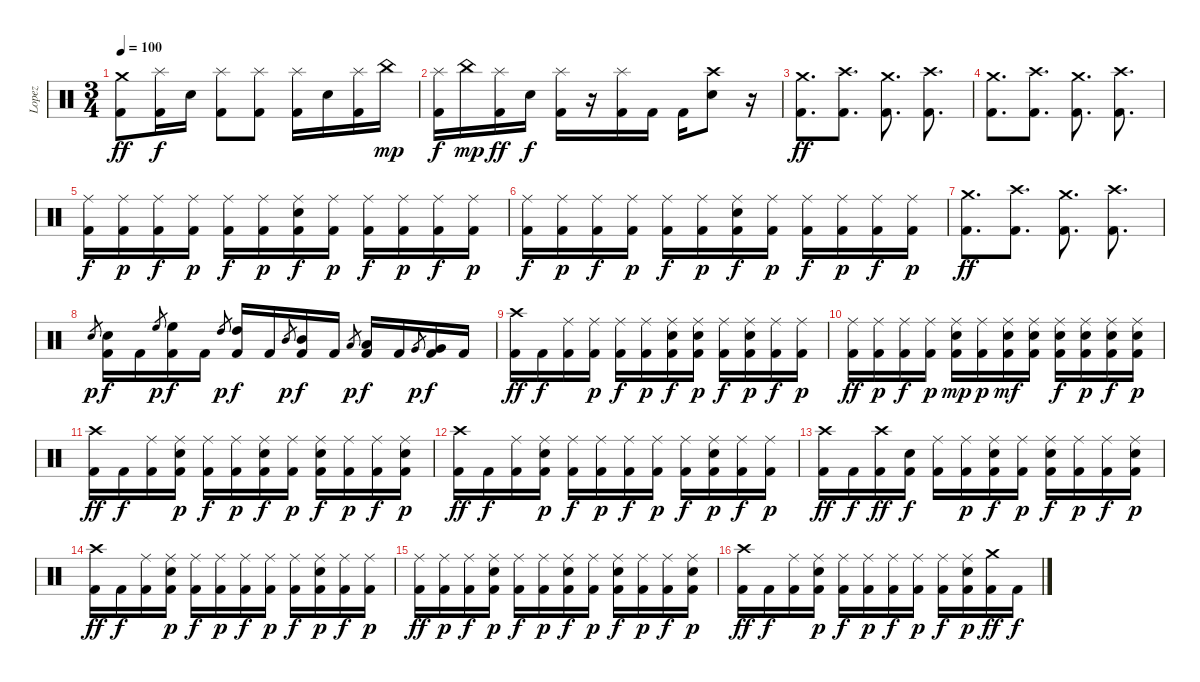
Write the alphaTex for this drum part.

\track ("Lopez" "Lopez") {instrument percussion}
\staff {score}
\articulation defaults
\ts (3 4)
\tempo 100
\clef neutral
\ks c
("Crash medium (hit)" "Kick (hit) 2").8{dy ff} ("Splash (hit)" "Kick (hit) 2").16{dy f} "Snare (hit) 2".16 ("Splash (hit)" "Kick (hit) 2").8 ("Splash (hit)" "Kick (hit) 2").8 ("Splash (hit)" "Kick (hit) 2").16 "Snare (hit) 2".16 ("Splash (hit)" "Kick (hit) 2").16 "China (hit)".16{dy mp} |
("Splash (hit)" "Kick (hit) 2").16{dy f} "China (hit)".16{dy mp} ("Splash (hit)" "Kick (hit) 2").16{dy ff} "Snare (hit) 2".16{dy f} ("Splash (hit)" "Kick (hit) 2").16 r.16 ("Splash (hit)" "Kick (hit) 2").16 "Kick (hit) 2".16 "Kick (hit) 2".16 ("Crash high (hit)" "Snare (hit) 2").8 r.16 |
("Crash medium (hit)" "Kick (hit) 2").8{d dy ff} ("Crash high (hit)" "Kick (hit) 2").8{d} ("Crash medium (hit)" "Kick (hit) 2").8{d} ("Crash high (hit)" "Kick (hit) 2").8{d} |
("Crash medium (hit)" "Kick (hit) 2").8{d} ("Crash high (hit)" "Kick (hit) 2").8{d} ("Crash medium (hit)" "Kick (hit) 2").8{d} ("Crash high (hit)" "Kick (hit) 2").8{d} |
("Ride (middle)" "Kick (hit) 2").16{dy f} ("Ride (middle)" "Kick (hit) 2").16{dy p} ("Ride (middle)" "Kick (hit) 2").16{dy f} ("Ride (middle)" "Kick (hit) 2").16{dy p} ("Ride (middle)" "Kick (hit) 2").16{dy f} ("Ride (middle)" "Kick (hit) 2").16{dy p} ("Ride (middle)" "Snare (hit) 2" "Kick (hit) 2").16{dy f} ("Ride (middle)" "Kick (hit) 2").16{dy p} ("Ride (middle)" "Kick (hit) 2").16{dy f} ("Ride (middle)" "Kick (hit) 2").16{dy p} ("Ride (middle)" "Kick (hit) 2").16{dy f} ("Ride (middle)" "Kick (hit) 2").16{dy p} |
("Ride (middle)" "Kick (hit) 2").16{dy f} ("Ride (middle)" "Kick (hit) 2").16{dy p} ("Ride (middle)" "Kick (hit) 2").16{dy f} ("Ride (middle)" "Kick (hit) 2").16{dy p} ("Ride (middle)" "Kick (hit) 2").16{dy f} ("Ride (middle)" "Kick (hit) 2").16{dy p} ("Ride (middle)" "Snare (hit) 2" "Kick (hit) 2").16{dy f} ("Ride (middle)" "Kick (hit) 2").16{dy p} ("Ride (middle)" "Kick (hit) 2").16{dy f} ("Ride (middle)" "Kick (hit) 2").16{dy p} ("Ride (middle)" "Kick (hit) 2").16{dy f} ("Ride (middle)" "Kick (hit) 2").16{dy p} |
("Crash medium (hit)" "Kick (hit) 2").8{d dy ff} ("Crash high (hit)" "Kick (hit) 2").8{d} ("Crash medium (hit)" "Kick (hit) 2").8{d} ("Crash high (hit)" "Kick (hit) 2").8{d} |
"Snare (hit) 2".8{gr dy p} ("Snare (hit) 2" "Kick (hit) 2").16{dy f} "Kick (hit) 2".16 "High Floor Tom (hit)".8{gr dy p} ("High Floor Tom (hit)" "Kick (hit) 2").16{dy f} "Kick (hit) 2".16 "High Tom (hit)".8{gr dy p} ("High Tom (hit)" "Kick (hit) 2").16{dy f} "Kick (hit) 2".16 "Mid Tom (hit)".8{gr dy p} ("Mid Tom (hit)" "Kick (hit) 2").16{dy f} "Kick (hit) 2".16 "Low Tom (hit)".8{gr dy p} ("Low Tom (hit)" "Kick (hit) 2").16{dy f} "Kick (hit) 2".16 "Very Low Tom (hit)".8{gr dy p} ("Very Low Tom (hit)" "Kick (hit) 2").16{dy f} "Kick (hit) 2".16 |
("Crash high (hit)" "Kick (hit) 2").16{dy ff} "Kick (hit) 2".16{dy f} ("Ride (middle)" "Kick (hit) 2").16 ("Ride (middle)" "Kick (hit) 2").16{dy p} ("Ride (middle)" "Kick (hit) 2").16{dy f} ("Ride (middle)" "Kick (hit) 2").16{dy p} ("Ride (middle)" "Snare (hit) 2" "Kick (hit) 2").16{dy f} ("Ride (middle)" "Snare (hit) 2" "Kick (hit) 2").16{dy p} ("Ride (middle)" "Kick (hit) 2").16{dy f} ("Ride (middle)" "Snare (hit) 2" "Kick (hit) 2").16{dy p} ("Ride (middle)" "Kick (hit) 2").16{dy f} ("Ride (middle)" "Kick (hit) 2").16{dy p} |
("Ride (middle)" "Kick (hit) 2").16{dy ff} ("Ride (middle)" "Kick (hit) 2").16{dy p} ("Ride (middle)" "Kick (hit) 2").16{dy f} ("Ride (middle)" "Kick (hit) 2").16{dy p} ("Ride (middle)" "Snare (hit) 2" "Kick (hit) 2").16{dy mp} ("Ride (middle)" "Kick (hit) 2").16{dy p} ("Ride (middle)" "Snare (hit) 2" "Kick (hit) 2").16{dy mf} ("Ride (middle)" "Snare (hit) 2" "Kick (hit) 2").16 ("Ride (middle)" "Snare (hit) 2" "Kick (hit) 2").16{dy f} ("Ride (middle)" "Snare (hit) 2" "Kick (hit) 2").16{dy p} ("Ride (middle)" "Snare (hit) 2" "Kick (hit) 2").16{dy f} ("Ride (middle)" "Snare (hit) 2" "Kick (hit) 2").16{dy p} |
("Crash high (hit)" "Kick (hit) 2").16{dy ff} "Kick (hit) 2".16{dy f} ("Ride (middle)" "Kick (hit) 2").16 ("Ride (middle)" "Snare (hit) 2" "Kick (hit) 2").16{dy p} ("Ride (middle)" "Kick (hit) 2").16{dy f} ("Ride (middle)" "Kick (hit) 2").16{dy p} ("Ride (middle)" "Snare (hit) 2" "Kick (hit) 2").16{dy f} ("Ride (middle)" "Kick (hit) 2").16{dy p} ("Ride (middle)" "Snare (hit) 2" "Kick (hit) 2").16{dy f} ("Ride (middle)" "Kick (hit) 2").16{dy p} ("Ride (middle)" "Kick (hit) 2").16{dy f} ("Ride (middle)" "Snare (hit) 2" "Kick (hit) 2").16{dy p} |
("Crash high (hit)" "Kick (hit) 2").16{dy ff} "Kick (hit) 2".16{dy f} ("Ride (middle)" "Kick (hit) 2").16 ("Ride (middle)" "Snare (hit) 2" "Kick (hit) 2").16{dy p} ("Ride (middle)" "Kick (hit) 2").16{dy f} ("Ride (middle)" "Kick (hit) 2").16{dy p} ("Ride (middle)" "Kick (hit) 2").16{dy f} ("Ride (middle)" "Kick (hit) 2").16{dy p} ("Ride (middle)" "Kick (hit) 2").16{dy f} ("Ride (middle)" "Snare (hit) 2" "Kick (hit) 2").16{dy p} ("Ride (middle)" "Kick (hit) 2").16{dy f} ("Ride (middle)" "Kick (hit) 2").16{dy p} |
("Crash high (hit)" "Kick (hit) 2").16{dy ff} "Kick (hit) 2".16{dy f} ("Crash high (hit)" "Kick (hit) 2").16{dy ff} ("Snare (hit) 2" "Kick (hit) 2").16{dy f} ("Ride (middle)" "Kick (hit) 2").16 ("Ride (middle)" "Kick (hit) 2").16{dy p} ("Ride (middle)" "Snare (hit) 2" "Kick (hit) 2").16{dy f} ("Ride (middle)" "Kick (hit) 2").16{dy p} ("Ride (middle)" "Snare (hit) 2" "Kick (hit) 2").16{dy f} ("Ride (middle)" "Kick (hit) 2").16{dy p} ("Ride (middle)" "Kick (hit) 2").16{dy f} ("Ride (middle)" "Snare (hit) 2" "Kick (hit) 2").16{dy p} |
("Crash high (hit)" "Kick (hit) 2").16{dy ff} "Kick (hit) 2".16{dy f} ("Ride (middle)" "Kick (hit) 2").16 ("Ride (middle)" "Snare (hit) 2" "Kick (hit) 2").16{dy p} ("Ride (middle)" "Kick (hit) 2").16{dy f} ("Ride (middle)" "Kick (hit) 2").16{dy p} ("Ride (middle)" "Kick (hit) 2").16{dy f} ("Ride (middle)" "Kick (hit) 2").16{dy p} ("Ride (middle)" "Kick (hit) 2").16{dy f} ("Ride (middle)" "Snare (hit) 2" "Kick (hit) 2").16{dy p} ("Ride (middle)" "Kick (hit) 2").16{dy f} ("Ride (middle)" "Kick (hit) 2").16{dy p} |
("Ride (middle)" "Kick (hit) 2").16{dy ff} ("Ride (middle)" "Kick (hit) 2").16{dy p} ("Ride (middle)" "Kick (hit) 2").16{dy f} ("Ride (middle)" "Snare (hit) 2" "Kick (hit) 2").16{dy p} ("Ride (middle)" "Kick (hit) 2").16{dy f} ("Ride (middle)" "Kick (hit) 2").16{dy p} ("Ride (middle)" "Snare (hit) 2" "Kick (hit) 2").16{dy f} ("Ride (middle)" "Kick (hit) 2").16{dy p} ("Ride (middle)" "Snare (hit) 2" "Kick (hit) 2").16{dy f} ("Ride (middle)" "Kick (hit) 2").16{dy p} ("Ride (middle)" "Kick (hit) 2").16{dy f} ("Ride (middle)" "Snare (hit) 2" "Kick (hit) 2").16{dy p} |
("Crash high (hit)" "Kick (hit) 2").16{dy ff} "Kick (hit) 2".16{dy f} ("Ride (middle)" "Kick (hit) 2").16 ("Ride (middle)" "Snare (hit) 2" "Kick (hit) 2").16{dy p} ("Ride (middle)" "Kick (hit) 2").16{dy f} ("Ride (middle)" "Kick (hit) 2").16{dy p} ("Ride (middle)" "Kick (hit) 2").16{dy f} ("Ride (middle)" "Kick (hit) 2").16{dy p} ("Ride (middle)" "Kick (hit) 2").16{dy f} ("Ride (middle)" "Snare (hit) 2" "Kick (hit) 2").16{dy p} ("Crash medium (hit)" "Kick (hit) 2").16{dy ff} "Kick (hit) 2".16{dy f}
